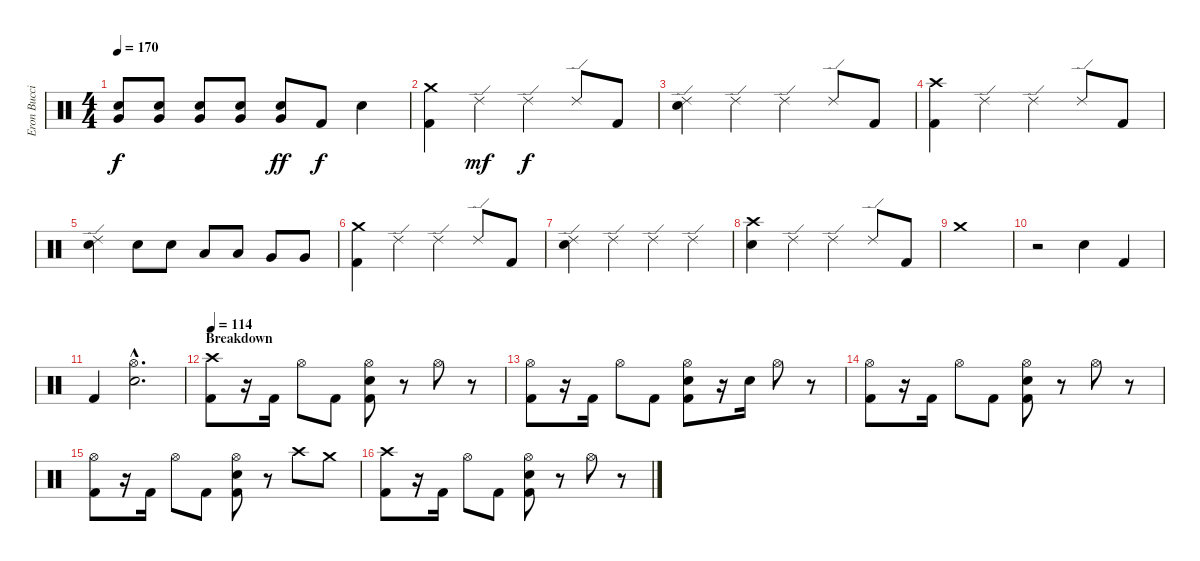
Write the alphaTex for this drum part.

\track ("Eron Bucciarelli (Drums)" "Eron Bucci") {instrument percussion}
\staff {score}
\articulation defaults
\ts (4 4)
\tempo 170
\clef neutral
\ks c
("Snare (hit) 2" "Very Low Tom (hit)").8{dy f} ("Snare (hit) 2" "Very Low Tom (hit)").8 ("Snare (hit) 2" "Very Low Tom (hit)").8 ("Snare (hit) 2" "Very Low Tom (hit)").8 ("Snare (hit) 2" "Very Low Tom (hit)").8{dy ff} "Kick (hit) 2".8{dy f} "Snare (hit) 2".4 |
("Crash medium (hit)" "Kick (hit) 2").4 "Ride (edge) 2".4{dy mf} "Ride (edge) 2".4{dy f} "Ride (edge) 2".8 "Kick (hit) 2".8 |
("Ride (edge) 2" "Snare (hit) 2").4 "Ride (edge) 2".4 "Ride (edge) 2".4 "Ride (edge) 2".8 "Kick (hit) 2".8 |
("Crash high (hit)" "Kick (hit) 2").4 "Ride (edge) 2".4 "Ride (edge) 2".4 "Ride (edge) 2".8 "Kick (hit) 2".8 |
("Ride (edge) 2" "Snare (hit) 2").4 "Snare (hit) 2".8 "Snare (hit) 2".8 "Low Tom (hit)".8 "Low Tom (hit)".8 "Very Low Tom (hit)".8 "Very Low Tom (hit)".8 |
("Crash medium (hit)" "Kick (hit) 2").4 "Ride (edge) 2".4 "Ride (edge) 2".4 "Ride (edge) 2".8 "Kick (hit) 2".8 |
("Ride (edge) 2" "Snare (hit) 2").4 "Ride (edge) 2".4 "Ride (edge) 2".4 "Ride (edge) 2".4 |
("Crash high (hit)" "Snare (hit) 2").4 "Ride (edge) 2".4 "Ride (edge) 2".4 "Ride (edge) 2".8 "Kick (hit) 2".8 |
"Crash medium (hit)".1 |
r.2 "Snare (hit) 2".4 "Kick (hit) 2".4 |
"Kick (hit) 2".4 ("Hi-Hat (open)"{hac} "Snare (hit) 2"{hac}).2{d} |
\section ("" "Breakdown")
\tempo 114
("Crash high (hit)" "Kick (hit) 2").8 r.16 "Kick (hit) 2".16 "Hi-Hat (open)".8 "Kick (hit) 2".8 ("Hi-Hat (open)" "Snare (hit) 2" "Kick (hit) 2").8 r.8 "Hi-Hat (open)".8 r.8 |
("Hi-Hat (open)" "Kick (hit) 2").8 r.16 "Kick (hit) 2".16 "Hi-Hat (open)".8 "Kick (hit) 2".8 ("Hi-Hat (open)" "Snare (hit) 2" "Kick (hit) 2").8 r.16 "Snare (hit) 2".16 "Hi-Hat (open)".8 r.8 |
("Hi-Hat (open)" "Kick (hit) 2").8 r.16 "Kick (hit) 2".16 "Hi-Hat (open)".8 "Kick (hit) 2".8 ("Hi-Hat (open)" "Snare (hit) 2" "Kick (hit) 2").8 r.8 "Hi-Hat (open)".8 r.8 |
("Hi-Hat (open)" "Kick (hit) 2").8 r.16 "Kick (hit) 2".16 "Hi-Hat (open)".8 "Kick (hit) 2".8 ("Hi-Hat (open)" "Snare (hit) 2" "Kick (hit) 2").8 r.8 "Crash high (hit)".8 "Crash medium (hit)".8 |
("Crash high (hit)" "Kick (hit) 2").8 r.16 "Kick (hit) 2".16 "Hi-Hat (open)".8 "Kick (hit) 2".8 ("Hi-Hat (open)" "Snare (hit) 2" "Kick (hit) 2").8 r.8 "Hi-Hat (open)".8 r.8
